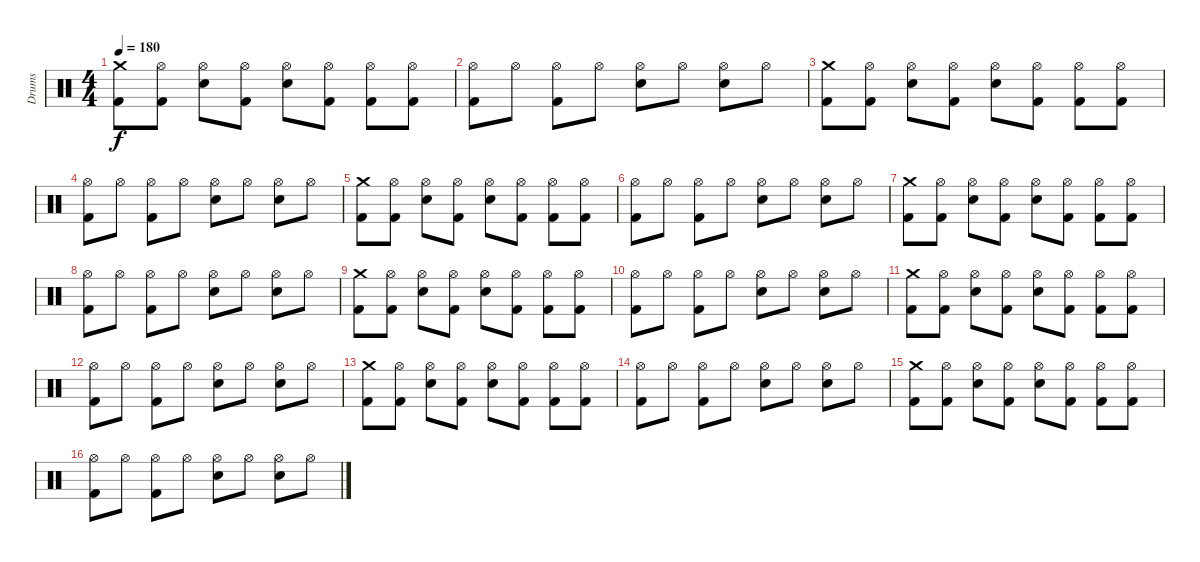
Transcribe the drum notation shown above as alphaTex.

\track ("Drums" "Drums") {instrument percussion}
\staff {score}
\articulation defaults
\ts (4 4)
\tempo 180
\clef neutral
\ks c
("Crash medium (hit)" "Kick (hit) 2").8{dy f} ("Hi-Hat (open)" "Kick (hit) 2").8 ("Hi-Hat (open)" "Electric Snare (hit)").8 ("Hi-Hat (open)" "Kick (hit) 2").8 ("Hi-Hat (open)" "Electric Snare (hit)").8 ("Hi-Hat (open)" "Kick (hit) 2").8 ("Hi-Hat (open)" "Kick (hit) 2").8 ("Hi-Hat (open)" "Kick (hit) 2").8 |
("Hi-Hat (open)" "Kick (hit) 2").8 "Hi-Hat (open)".8 ("Hi-Hat (open)" "Kick (hit) 2").8 "Hi-Hat (open)".8 ("Hi-Hat (open)" "Electric Snare (hit)").8 "Hi-Hat (open)".8 ("Hi-Hat (open)" "Electric Snare (hit)").8 "Hi-Hat (open)".8 |
("Crash medium (hit)" "Kick (hit) 2").8 ("Hi-Hat (open)" "Kick (hit) 2").8 ("Hi-Hat (open)" "Electric Snare (hit)").8 ("Hi-Hat (open)" "Kick (hit) 2").8 ("Hi-Hat (open)" "Electric Snare (hit)").8 ("Hi-Hat (open)" "Kick (hit) 2").8 ("Hi-Hat (open)" "Kick (hit) 2").8 ("Hi-Hat (open)" "Kick (hit) 2").8 |
("Hi-Hat (open)" "Kick (hit) 2").8 "Hi-Hat (open)".8 ("Hi-Hat (open)" "Kick (hit) 2").8 "Hi-Hat (open)".8 ("Hi-Hat (open)" "Electric Snare (hit)").8 "Hi-Hat (open)".8 ("Hi-Hat (open)" "Electric Snare (hit)").8 "Hi-Hat (open)".8 |
("Crash medium (hit)" "Kick (hit) 2").8 ("Hi-Hat (open)" "Kick (hit) 2").8 ("Hi-Hat (open)" "Electric Snare (hit)").8 ("Hi-Hat (open)" "Kick (hit) 2").8 ("Hi-Hat (open)" "Electric Snare (hit)").8 ("Hi-Hat (open)" "Kick (hit) 2").8 ("Hi-Hat (open)" "Kick (hit) 2").8 ("Hi-Hat (open)" "Kick (hit) 2").8 |
("Hi-Hat (open)" "Kick (hit) 2").8 "Hi-Hat (open)".8 ("Hi-Hat (open)" "Kick (hit) 2").8 "Hi-Hat (open)".8 ("Hi-Hat (open)" "Electric Snare (hit)").8 "Hi-Hat (open)".8 ("Hi-Hat (open)" "Electric Snare (hit)").8 "Hi-Hat (open)".8 |
("Crash medium (hit)" "Kick (hit) 2").8 ("Hi-Hat (open)" "Kick (hit) 2").8 ("Hi-Hat (open)" "Electric Snare (hit)").8 ("Hi-Hat (open)" "Kick (hit) 2").8 ("Hi-Hat (open)" "Electric Snare (hit)").8 ("Hi-Hat (open)" "Kick (hit) 2").8 ("Hi-Hat (open)" "Kick (hit) 2").8 ("Hi-Hat (open)" "Kick (hit) 2").8 |
("Hi-Hat (open)" "Kick (hit) 2").8 "Hi-Hat (open)".8 ("Hi-Hat (open)" "Kick (hit) 2").8 "Hi-Hat (open)".8 ("Hi-Hat (open)" "Electric Snare (hit)").8 "Hi-Hat (open)".8 ("Hi-Hat (open)" "Electric Snare (hit)").8 "Hi-Hat (open)".8 |
("Crash medium (hit)" "Kick (hit) 2").8 ("Hi-Hat (open)" "Kick (hit) 2").8 ("Hi-Hat (open)" "Electric Snare (hit)").8 ("Hi-Hat (open)" "Kick (hit) 2").8 ("Hi-Hat (open)" "Electric Snare (hit)").8 ("Hi-Hat (open)" "Kick (hit) 2").8 ("Hi-Hat (open)" "Kick (hit) 2").8 ("Hi-Hat (open)" "Kick (hit) 2").8 |
("Hi-Hat (open)" "Kick (hit) 2").8 "Hi-Hat (open)".8 ("Hi-Hat (open)" "Kick (hit) 2").8 "Hi-Hat (open)".8 ("Hi-Hat (open)" "Electric Snare (hit)").8 "Hi-Hat (open)".8 ("Hi-Hat (open)" "Electric Snare (hit)").8 "Hi-Hat (open)".8 |
("Crash medium (hit)" "Kick (hit) 2").8 ("Hi-Hat (open)" "Kick (hit) 2").8 ("Hi-Hat (open)" "Electric Snare (hit)").8 ("Hi-Hat (open)" "Kick (hit) 2").8 ("Hi-Hat (open)" "Electric Snare (hit)").8 ("Hi-Hat (open)" "Kick (hit) 2").8 ("Hi-Hat (open)" "Kick (hit) 2").8 ("Hi-Hat (open)" "Kick (hit) 2").8 |
("Hi-Hat (open)" "Kick (hit) 2").8 "Hi-Hat (open)".8 ("Hi-Hat (open)" "Kick (hit) 2").8 "Hi-Hat (open)".8 ("Hi-Hat (open)" "Electric Snare (hit)").8 "Hi-Hat (open)".8 ("Hi-Hat (open)" "Electric Snare (hit)").8 "Hi-Hat (open)".8 |
("Crash medium (hit)" "Kick (hit) 2").8 ("Hi-Hat (open)" "Kick (hit) 2").8 ("Hi-Hat (open)" "Electric Snare (hit)").8 ("Hi-Hat (open)" "Kick (hit) 2").8 ("Hi-Hat (open)" "Electric Snare (hit)").8 ("Hi-Hat (open)" "Kick (hit) 2").8 ("Hi-Hat (open)" "Kick (hit) 2").8 ("Hi-Hat (open)" "Kick (hit) 2").8 |
("Hi-Hat (open)" "Kick (hit) 2").8 "Hi-Hat (open)".8 ("Hi-Hat (open)" "Kick (hit) 2").8 "Hi-Hat (open)".8 ("Hi-Hat (open)" "Electric Snare (hit)").8 "Hi-Hat (open)".8 ("Hi-Hat (open)" "Electric Snare (hit)").8 "Hi-Hat (open)".8 |
("Crash medium (hit)" "Kick (hit) 2").8 ("Hi-Hat (open)" "Kick (hit) 2").8 ("Hi-Hat (open)" "Electric Snare (hit)").8 ("Hi-Hat (open)" "Kick (hit) 2").8 ("Hi-Hat (open)" "Electric Snare (hit)").8 ("Hi-Hat (open)" "Kick (hit) 2").8 ("Hi-Hat (open)" "Kick (hit) 2").8 ("Hi-Hat (open)" "Kick (hit) 2").8 |
("Hi-Hat (open)" "Kick (hit) 2").8 "Hi-Hat (open)".8 ("Hi-Hat (open)" "Kick (hit) 2").8 "Hi-Hat (open)".8 ("Hi-Hat (open)" "Electric Snare (hit)").8 "Hi-Hat (open)".8 ("Hi-Hat (open)" "Electric Snare (hit)").8 "Hi-Hat (open)".8
